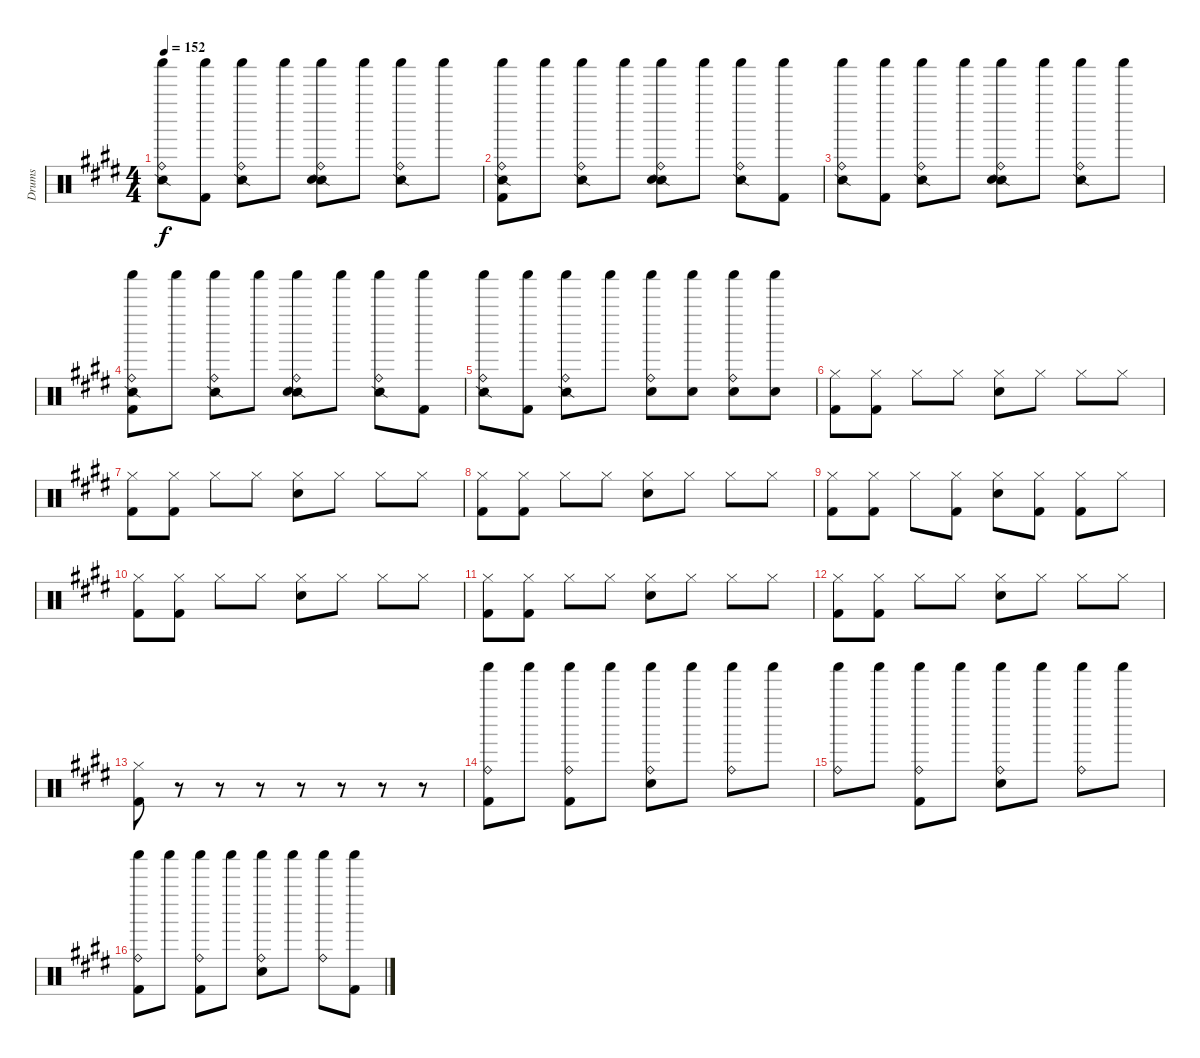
\track ("Drums" "Drums") {instrument percussion}
\staff {score}
\articulation defaults
\ts (4 4)
\tempo 152
\clef neutral
\ks c#minor
("Snare (side stick) 2" "Ride (bell)" "Shaker (hit)").8{dy f} ("Shaker (hit)" "Kick (hit) 2").8 ("Snare (side stick) 2" "Ride (bell)" "Shaker (hit)").8 "Shaker (hit)".8 ("Snare (side stick) 2" "Ride (bell)" "Snare (hit) 2" "Shaker (hit)").8 "Shaker (hit)".8 ("Snare (side stick) 2" "Ride (bell)" "Shaker (hit)").8 "Shaker (hit)".8 |
("Snare (side stick) 2" "Ride (bell)" "Kick (hit) 2" "Shaker (hit)").8 "Shaker (hit)".8 ("Snare (side stick) 2" "Ride (bell)" "Shaker (hit)").8 "Shaker (hit)".8 ("Snare (side stick) 2" "Ride (bell)" "Snare (hit) 2" "Shaker (hit)").8 "Shaker (hit)".8 ("Snare (side stick) 2" "Ride (bell)" "Shaker (hit)").8 ("Kick (hit) 2" "Shaker (hit)").8 |
("Snare (side stick) 2" "Ride (bell)" "Shaker (hit)").8 ("Shaker (hit)" "Kick (hit) 2").8 ("Snare (side stick) 2" "Ride (bell)" "Shaker (hit)").8 "Shaker (hit)".8 ("Snare (side stick) 2" "Ride (bell)" "Snare (hit) 2" "Shaker (hit)").8 "Shaker (hit)".8 ("Snare (side stick) 2" "Ride (bell)" "Shaker (hit)").8 "Shaker (hit)".8 |
("Snare (side stick) 2" "Ride (bell)" "Kick (hit) 2" "Shaker (hit)").8 "Shaker (hit)".8 ("Snare (side stick) 2" "Ride (bell)" "Shaker (hit)").8 "Shaker (hit)".8 ("Snare (side stick) 2" "Ride (bell)" "Snare (hit) 2" "Shaker (hit)").8 "Shaker (hit)".8 ("Snare (side stick) 2" "Ride (bell)" "Shaker (hit)").8 ("Kick (hit) 2" "Shaker (hit)").8 |
("Snare (side stick) 2" "Ride (bell)" "Shaker (hit)").8 ("Shaker (hit)" "Kick (hit) 2").8 ("Snare (side stick) 2" "Ride (bell)" "Shaker (hit)").8 "Shaker (hit)".8 ("Ride (bell)" "Snare (hit) 2" "Shaker (hit)").8 ("Snare (hit) 2" "Shaker (hit)").8 ("Snare (hit) 2" "Ride (bell)" "Shaker (hit)").8 ("Snare (hit) 2" "Shaker (hit)").8 |
("Kick (hit) 2" "Hi-Hat (closed)").8 ("Hi-Hat (closed)" "Kick (hit) 2").8 "Hi-Hat (closed)".8 "Hi-Hat (closed)".8 ("Snare (hit) 2" "Hi-Hat (closed)").8 "Hi-Hat (closed)".8 "Hi-Hat (closed)".8 "Hi-Hat (closed)".8 |
("Kick (hit) 2" "Hi-Hat (closed)").8 ("Hi-Hat (closed)" "Kick (hit) 2").8 "Hi-Hat (closed)".8 "Hi-Hat (closed)".8 ("Snare (hit) 2" "Hi-Hat (closed)").8 "Hi-Hat (closed)".8 "Hi-Hat (closed)".8 "Hi-Hat (closed)".8 |
("Kick (hit) 2" "Hi-Hat (closed)").8 ("Hi-Hat (closed)" "Kick (hit) 2").8 "Hi-Hat (closed)".8 "Hi-Hat (closed)".8 ("Snare (hit) 2" "Hi-Hat (closed)").8 "Hi-Hat (closed)".8 "Hi-Hat (closed)".8 "Hi-Hat (closed)".8 |
("Kick (hit) 2" "Hi-Hat (closed)").8 ("Hi-Hat (closed)" "Kick (hit) 2").8 "Hi-Hat (closed)".8 ("Kick (hit) 2" "Hi-Hat (closed)").8 ("Snare (hit) 2" "Hi-Hat (closed)").8 ("Kick (hit) 2" "Hi-Hat (closed)").8 ("Kick (hit) 2" "Hi-Hat (closed)").8 "Hi-Hat (closed)".8 |
("Kick (hit) 2" "Hi-Hat (closed)").8 ("Hi-Hat (closed)" "Kick (hit) 2").8 "Hi-Hat (closed)".8 "Hi-Hat (closed)".8 ("Snare (hit) 2" "Hi-Hat (closed)").8 "Hi-Hat (closed)".8 "Hi-Hat (closed)".8 "Hi-Hat (closed)".8 |
("Kick (hit) 2" "Hi-Hat (closed)").8 ("Hi-Hat (closed)" "Kick (hit) 2").8 "Hi-Hat (closed)".8 "Hi-Hat (closed)".8 ("Snare (hit) 2" "Hi-Hat (closed)").8 "Hi-Hat (closed)".8 "Hi-Hat (closed)".8 "Hi-Hat (closed)".8 |
("Kick (hit) 2" "Hi-Hat (closed)").8 ("Hi-Hat (closed)" "Kick (hit) 2").8 "Hi-Hat (closed)".8 "Hi-Hat (closed)".8 ("Snare (hit) 2" "Hi-Hat (closed)").8 "Hi-Hat (closed)".8 "Hi-Hat (closed)".8 "Hi-Hat (closed)".8 |
("Kick (hit) 2" "Hi-Hat (closed)").8 r.8 r.8 r.8 r.8 r.8 r.8 r.8 |
("Ride (bell)" "Kick (hit) 2" "Shaker (hit)").8 "Shaker (hit)".8 ("Ride (bell)" "Kick (hit) 2" "Shaker (hit)").8 "Shaker (hit)".8 ("Ride (bell)" "Snare (hit) 2" "Shaker (hit)").8 "Shaker (hit)".8 ("Ride (bell)" "Shaker (hit)").8 "Shaker (hit)".8 |
("Ride (bell)" "Shaker (hit)").8 "Shaker (hit)".8 ("Ride (bell)" "Kick (hit) 2" "Shaker (hit)").8 "Shaker (hit)".8 ("Ride (bell)" "Snare (hit) 2" "Shaker (hit)").8 "Shaker (hit)".8 ("Ride (bell)" "Shaker (hit)").8 "Shaker (hit)".8 |
("Ride (bell)" "Kick (hit) 2" "Shaker (hit)").8 "Shaker (hit)".8 ("Ride (bell)" "Kick (hit) 2" "Shaker (hit)").8 "Shaker (hit)".8 ("Ride (bell)" "Snare (hit) 2" "Shaker (hit)").8 "Shaker (hit)".8 ("Ride (bell)" "Shaker (hit)").8 ("Kick (hit) 2" "Shaker (hit)").8
